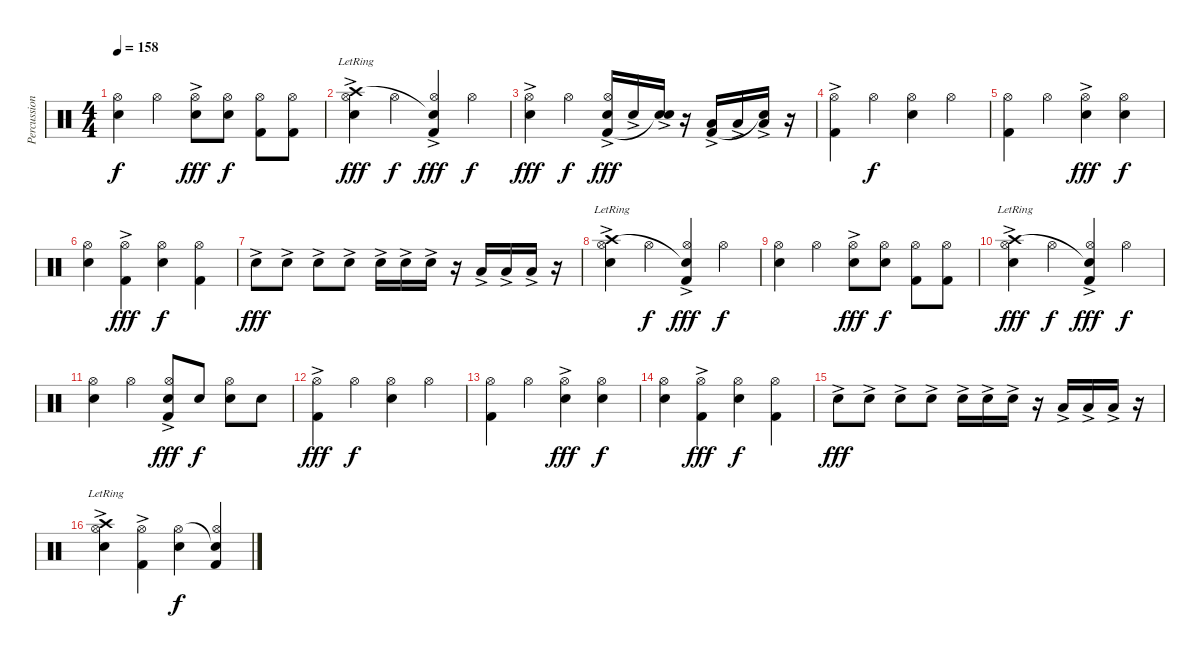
\track ("Percussion" "Percussion") {instrument percussion}
\staff {score}
\articulation defaults
\ts (4 4)
\tempo 158
\clef neutral
\ks c
("Snare (hit) 2" "Hi-Hat (open)").4{dy f} "Hi-Hat (open)".4 ("Snare (hit) 2"{ac} "Hi-Hat (open)").8{dy fff} ("Snare (hit) 2" "Hi-Hat (open)").8{dy f} ("Kick (hit) 2" "Hi-Hat (open)").8 ("Kick (hit) 2" "Hi-Hat (open)").8 |
("Snare (hit) 2"{ac} "Crash high (hit)"{ac lr} "Hi-Hat (open)").4{dy fff} "Hi-Hat (open)".4{dy f} ("Kick (hit) 2"{ac} "Snare (hit)"{t} "Hi-Hat (open)").4{dy fff} "Hi-Hat (open)".4{dy f} |
("Snare (hit) 2"{ac} "Hi-Hat (open)").4{dy fff} "Hi-Hat (open)".4{dy f} ("Snare (hit) 2"{ac} "Kick (hit) 2" "Hi-Hat (open)").16{dy fff} "Snare (hit) 2"{ac}.16 ("Snare (hit) 2"{ac} "Snare (hit)"{t}).16 r.16 ("Low Floor Tom (hit)"{ac} "Kick (hit) 2").16 "Low Floor Tom (hit)"{ac}.16 ("Low Floor Tom (hit)"{ac} "Snare (hit)"{t}).16 r.16 |
("Kick (hit) 2"{ac} "Hi-Hat (open)").4 "Hi-Hat (open)".4{dy f} ("Snare (hit) 2" "Hi-Hat (open)").4 "Hi-Hat (open)".4 |
("Kick (hit) 2" "Hi-Hat (open)").4 "Hi-Hat (open)".4 ("Snare (hit) 2"{ac} "Hi-Hat (open)").4{dy fff} ("Snare (hit) 2" "Hi-Hat (open)").4{dy f} |
("Snare (hit) 2" "Hi-Hat (open)").4 ("Kick (hit) 2"{ac} "Hi-Hat (open)").4{dy fff} ("Snare (hit) 2" "Hi-Hat (open)").4{dy f} ("Kick (hit) 2" "Hi-Hat (open)").4 |
"Snare (hit) 2"{ac}.8{dy fff} "Snare (hit) 2"{ac}.8 "Snare (hit) 2"{ac}.8 "Snare (hit) 2"{ac}.8 "Electric Snare (hit)"{ac}.16 "Electric Snare (hit)"{ac}.16 "Electric Snare (hit)"{ac}.16 r.16 "Low Floor Tom (hit)"{ac}.16 "Low Floor Tom (hit)"{ac}.16 "Low Floor Tom (hit)"{ac}.16 r.16 |
("Snare (hit) 2" "Crash high (hit)"{ac lr} "Hi-Hat (open)").4 "Hi-Hat (open)".4{dy f} ("Kick (hit) 2"{ac} "Snare (hit)"{t} "Hi-Hat (open)").4{dy fff} "Hi-Hat (open)".4{dy f} |
("Snare (hit) 2" "Hi-Hat (open)").4 "Hi-Hat (open)".4 ("Snare (hit) 2"{ac} "Hi-Hat (open)").8{dy fff} ("Snare (hit) 2" "Hi-Hat (open)").8{dy f} ("Kick (hit) 2" "Hi-Hat (open)").8 ("Kick (hit) 2" "Hi-Hat (open)").8 |
("Snare (hit) 2"{ac} "Crash high (hit)"{ac lr} "Hi-Hat (open)").4{dy fff} "Hi-Hat (open)".4{dy f} ("Kick (hit) 2"{ac} "Snare (hit)"{t} "Hi-Hat (open)").4{dy fff} "Hi-Hat (open)".4{dy f} |
("Snare (hit) 2" "Hi-Hat (open)").4 "Hi-Hat (open)".4 ("Snare (hit) 2"{ac} "Kick (hit) 2" "Hi-Hat (open)").8{dy fff} "Snare (hit) 2".8{dy f} ("Snare (hit) 2" "Hi-Hat (open)").8 "Snare (hit) 2".8 |
("Kick (hit) 2"{ac} "Hi-Hat (open)").4{dy fff} "Hi-Hat (open)".4{dy f} ("Snare (hit) 2" "Hi-Hat (open)").4 "Hi-Hat (open)".4 |
("Kick (hit) 2" "Hi-Hat (open)").4 "Hi-Hat (open)".4 ("Snare (hit) 2"{ac} "Hi-Hat (open)").4{dy fff} ("Snare (hit) 2" "Hi-Hat (open)").4{dy f} |
("Snare (hit) 2" "Hi-Hat (open)").4 ("Kick (hit) 2"{ac} "Hi-Hat (open)").4{dy fff} ("Snare (hit) 2" "Hi-Hat (open)").4{dy f} ("Kick (hit) 2" "Hi-Hat (open)").4 |
"Snare (hit) 2"{ac}.8{dy fff} "Snare (hit) 2"{ac}.8 "Snare (hit) 2"{ac}.8 "Snare (hit) 2"{ac}.8 "Electric Snare (hit)"{ac}.16 "Electric Snare (hit)"{ac}.16 "Electric Snare (hit)"{ac}.16 r.16 "Low Floor Tom (hit)"{ac}.16 "Low Floor Tom (hit)"{ac}.16 "Low Floor Tom (hit)"{ac}.16 r.16 |
("Snare (hit) 2" "Crash high (hit)"{ac lr} "Hi-Hat (open)").4 ("Kick (hit) 2"{ac} "Hi-Hat (open)").4 ("Snare (hit) 2" "Hi-Hat (open)").4{dy f} ("Kick (hit) 2" "Snare (hit)"{t} "Hi-Hat (open)").4
